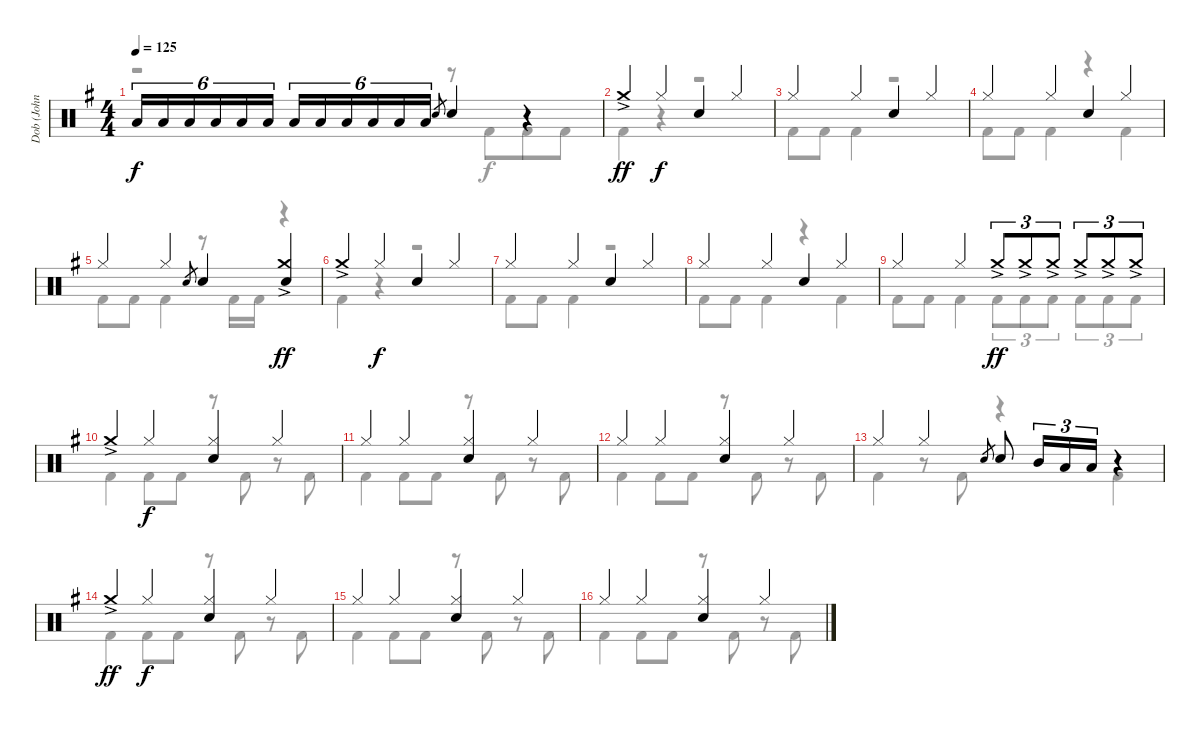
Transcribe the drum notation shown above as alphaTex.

\track ("Dob (John Macaluso)" "Dob (John ") {instrument percussion}
\staff {score}
\articulation defaults
\voice
\ts (4 4)
\tempo 125
\clef neutral
\ks g "Low Tom (hit)".16{tu (6 4) dy f} "Low Tom (hit)".16{tu (6 4)} "Low Tom (hit)".16{tu (6 4)} "Low Tom (hit)".16{tu (6 4)} "Low Tom (hit)".16{tu (6 4)} "Low Tom (hit)".16{tu (6 4)} "Low Tom (hit)".16{tu (6 4)} "Low Tom (hit)".16{tu (6 4)} "Low Tom (hit)".16{tu (6 4)} "Low Tom (hit)".16{tu (6 4)} "Low Tom (hit)".16{tu (6 4)} "Low Tom (hit)".16{tu (6 4)} "Electric Snare (hit)".8{gr} "Electric Snare (hit)".4
r.4 |
"Crash medium (hit)"{ac}.4{dy ff} "Hi-Hat (closed)".4{dy f} "Electric Snare (hit)".4 "Hi-Hat (closed)".4 |
"Hi-Hat (closed)".4 "Hi-Hat (closed)".4 "Electric Snare (hit)".4 "Hi-Hat (closed)".4 |
"Hi-Hat (closed)".4 "Hi-Hat (closed)".4 "Electric Snare (hit)".4 "Hi-Hat (closed)".4 |
"Hi-Hat (closed)".4 "Hi-Hat (closed)".4 "Electric Snare (hit)".8{gr} "Electric Snare (hit)".4 ("Crash medium (hit)"{ac} "Electric Snare (hit)").4{dy ff} |
"Crash medium (hit)"{ac}.4 "Hi-Hat (closed)".4{dy f} "Electric Snare (hit)".4 "Hi-Hat (closed)".4 |
"Hi-Hat (closed)".4 "Hi-Hat (closed)".4 "Electric Snare (hit)".4 "Hi-Hat (closed)".4 |
"Hi-Hat (closed)".4 "Hi-Hat (closed)".4 "Electric Snare (hit)".4 "Hi-Hat (closed)".4 |
"Hi-Hat (closed)".4 "Hi-Hat (closed)".4 "Crash medium (hit)"{ac}.8{tu (3 2) dy ff} "Crash medium (hit)"{ac}.8{tu (3 2)} "Crash medium (hit)"{ac}.8{tu (3 2)} "Crash medium (hit)"{ac}.8{tu (3 2)} "Crash medium (hit)"{ac}.8{tu (3 2)} "Crash medium (hit)"{ac}.8{tu (3 2)} |
"Crash medium (hit)"{ac}.4 "Hi-Hat (closed)".4{dy f} ("Hi-Hat (closed)" "Electric Snare (hit)").4 "Hi-Hat (closed)".4 |
"Hi-Hat (closed)".4 "Hi-Hat (closed)".4 ("Hi-Hat (closed)" "Electric Snare (hit)").4 "Hi-Hat (closed)".4 |
"Hi-Hat (closed)".4 "Hi-Hat (closed)".4 ("Hi-Hat (closed)" "Electric Snare (hit)").4 "Hi-Hat (closed)".4 |
"Hi-Hat (closed)".4 "Hi-Hat (closed)".4 "Electric Snare (hit)".8{gr} "Electric Snare (hit)".8 "Mid Tom (hit)".16{tu (3 2)} "Low Tom (hit)".16{tu (3 2)} "Low Tom (hit)".16{tu (3 2)} r.4 |
"Crash medium (hit)"{ac}.4{dy ff} "Hi-Hat (closed)".4{dy f} ("Hi-Hat (closed)" "Electric Snare (hit)").4 "Hi-Hat (closed)".4 |
"Hi-Hat (closed)".4 "Hi-Hat (closed)".4 ("Hi-Hat (closed)" "Electric Snare (hit)").4 "Hi-Hat (closed)".4 |
"Hi-Hat (closed)".4 "Hi-Hat (closed)".4 ("Hi-Hat (closed)" "Electric Snare (hit)").4 "Hi-Hat (closed)".4
\voice
\clef neutral
\ottava regular
\simile none
\ks g
r.2{dy f} r.8 "Kick (hit) 2".8{beam merge} "Kick (hit) 2".8 "Kick (hit) 2".8 |
"Kick (hit) 2".4 r.4 r.2 |
"Kick (hit) 2".8 "Kick (hit) 2".8 "Kick (hit) 2".4 r.2 |
"Kick (hit) 2".8 "Kick (hit) 2".8 "Kick (hit) 2".4 r.4 "Kick (hit) 2".4 |
"Kick (hit) 2".8 "Kick (hit) 2".8 "Kick (hit) 2".4 r.8 "Kick (hit) 2".16 "Kick (hit) 2".16 r.4 |
"Kick (hit) 2".4 r.4 r.2 |
"Kick (hit) 2".8 "Kick (hit) 2".8 "Kick (hit) 2".4 r.2 |
"Kick (hit) 2".8 "Kick (hit) 2".8 "Kick (hit) 2".4 r.4 "Kick (hit) 2".4 |
"Kick (hit) 2".8 "Kick (hit) 2".8 "Kick (hit) 2".4 "Kick (hit) 2".8{tu (3 2)} "Kick (hit) 2".8{tu (3 2)} "Kick (hit) 2".8{tu (3 2)} "Kick (hit) 2".8{tu (3 2)} "Kick (hit) 2".8{tu (3 2)} "Kick (hit) 2".8{tu (3 2)} |
"Kick (hit) 2".4 "Kick (hit) 2".8 "Kick (hit) 2".8 r.8 "Kick (hit) 2".8 r.8 "Kick (hit) 2".8 |
"Kick (hit) 2".4 "Kick (hit) 2".8 "Kick (hit) 2".8 r.8 "Kick (hit) 2".8 r.8 "Kick (hit) 2".8 |
"Kick (hit) 2".4 "Kick (hit) 2".8 "Kick (hit) 2".8 r.8 "Kick (hit) 2".8 r.8 "Kick (hit) 2".8 |
"Kick (hit) 2".4 r.8 "Kick (hit) 2".8 r.4 "Kick (hit) 2".4 |
"Kick (hit) 2".4 "Kick (hit) 2".8 "Kick (hit) 2".8 r.8 "Kick (hit) 2".8 r.8 "Kick (hit) 2".8 |
"Kick (hit) 2".4 "Kick (hit) 2".8 "Kick (hit) 2".8 r.8 "Kick (hit) 2".8 r.8 "Kick (hit) 2".8 |
"Kick (hit) 2".4 "Kick (hit) 2".8 "Kick (hit) 2".8 r.8 "Kick (hit) 2".8 r.8 "Kick (hit) 2".8
